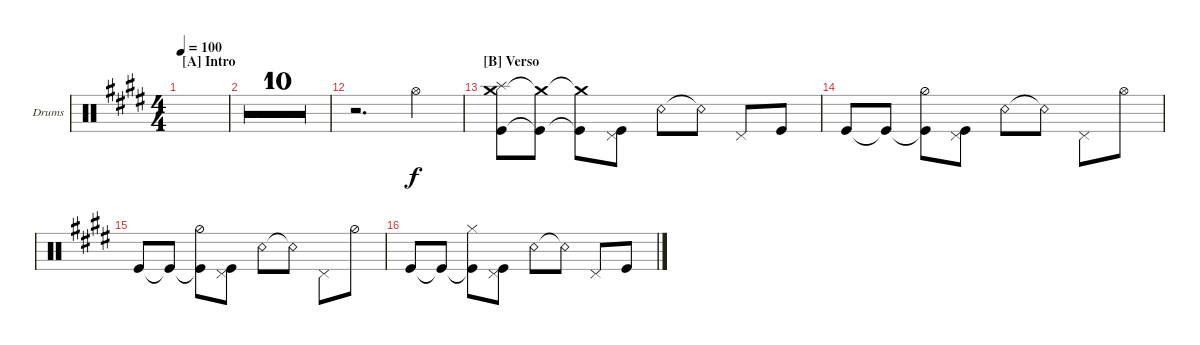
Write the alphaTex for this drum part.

\defaultSystemsLayout 4
\bracketExtendMode groupsimilarinstruments
\firstSystemTrackNameOrientation horizontal
\otherSystemsTrackNameOrientation horizontal
\track ("Drumkit" "Drums") {multiBarRest instrument percussion}
\staff {score}
\articulation defaults
\ts (4 4)
\section ("A" "Intro")
\tempo 100
\clef neutral
\ks e
|
|
|
|
|
|
|
|
|
|
|
r.2{d} "Hi-Hat (open)".4 |
\section ("B" "Verso")
("Kick (hit)" "Crash medium (hit)" "Splash (hit)").8 ("Kick (hit)"{t} "Crash medium (hit)"{t}).8 ("Kick (hit)"{t} "Crash medium (hit)"{t}).8 ("Kick (hit)" "Pedal Hi-Hat (hit)").8 "Snare (rim shot)".8 "Snare (rim shot)"{t}.8 "Pedal Hi-Hat (hit)".8 "Kick (hit)".8 |
"Kick (hit)".8 "Kick (hit)"{t}.8 ("Kick (hit)"{t} "Hi-Hat (half)").8 ("Kick (hit)" "Pedal Hi-Hat (hit)").8 "Snare (rim shot)".8 "Snare (rim shot)"{t}.8 "Pedal Hi-Hat (hit)".8 "Hi-Hat (open)".8 |
"Kick (hit)".8 "Kick (hit)"{t}.8 ("Kick (hit)"{t} "Hi-Hat (half)").8 ("Kick (hit)" "Pedal Hi-Hat (hit)").8 "Snare (rim shot)".8 "Snare (rim shot)"{t}.8 "Pedal Hi-Hat (hit)".8 "Hi-Hat (half)".8 |
"Kick (hit)".8 "Kick (hit)"{t}.8 ("Kick (hit)"{t} "Hi-Hat (closed)").8 ("Kick (hit)" "Pedal Hi-Hat (hit)").8 "Snare (rim shot)".8 "Snare (rim shot)"{t}.8 "Pedal Hi-Hat (hit)".8 "Kick (hit)".8
